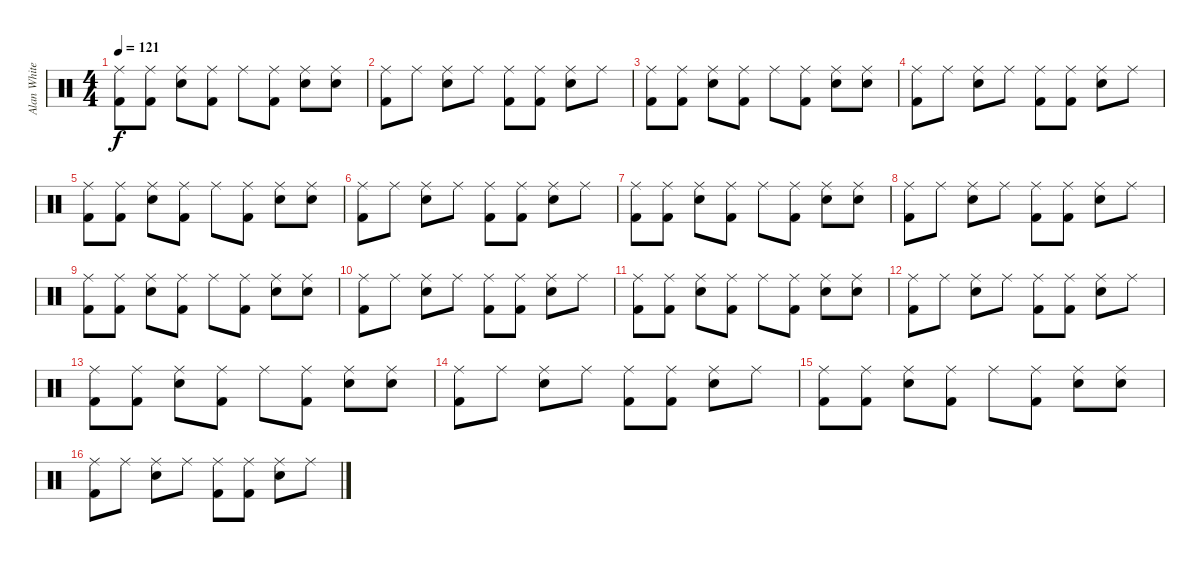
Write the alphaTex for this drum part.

\track ("Alan White - Drums" "Alan White") {instrument percussion}
\staff {score}
\articulation defaults
\ts (4 4)
\tempo 121
\clef neutral
\ks c
("Ride (middle)" "Kick (hit) 2").8{dy f} ("Ride (middle)" "Kick (hit) 2").8 ("Ride (middle)" "Electric Snare (hit)").8 ("Ride (middle)" "Kick (hit) 2").8 "Ride (middle)".8 ("Ride (middle)" "Kick (hit) 2").8 ("Ride (middle)" "Electric Snare (hit)").8 ("Ride (middle)" "Electric Snare (hit)").8 |
("Ride (middle)" "Kick (hit) 2").8 "Ride (middle)".8 ("Ride (middle)" "Electric Snare (hit)").8 "Ride (middle)".8 ("Ride (middle)" "Kick (hit) 2").8 ("Ride (middle)" "Kick (hit) 2").8 ("Ride (middle)" "Electric Snare (hit)").8 "Ride (middle)".8 |
("Ride (middle)" "Kick (hit) 2").8 ("Ride (middle)" "Kick (hit) 2").8 ("Ride (middle)" "Electric Snare (hit)").8 ("Ride (middle)" "Kick (hit) 2").8 "Ride (middle)".8 ("Ride (middle)" "Kick (hit) 2").8 ("Ride (middle)" "Electric Snare (hit)").8 ("Ride (middle)" "Electric Snare (hit)").8 |
("Ride (middle)" "Kick (hit) 2").8 "Ride (middle)".8 ("Ride (middle)" "Electric Snare (hit)").8 "Ride (middle)".8 ("Ride (middle)" "Kick (hit) 2").8 ("Ride (middle)" "Kick (hit) 2").8 ("Ride (middle)" "Electric Snare (hit)").8 "Ride (middle)".8 |
("Ride (middle)" "Kick (hit) 2").8 ("Ride (middle)" "Kick (hit) 2").8 ("Ride (middle)" "Electric Snare (hit)").8 ("Ride (middle)" "Kick (hit) 2").8 "Ride (middle)".8 ("Ride (middle)" "Kick (hit) 2").8 ("Ride (middle)" "Electric Snare (hit)").8 ("Ride (middle)" "Electric Snare (hit)").8 |
("Ride (middle)" "Kick (hit) 2").8 "Ride (middle)".8 ("Ride (middle)" "Electric Snare (hit)").8 "Ride (middle)".8 ("Ride (middle)" "Kick (hit) 2").8 ("Ride (middle)" "Kick (hit) 2").8 ("Ride (middle)" "Electric Snare (hit)").8 "Ride (middle)".8 |
("Ride (middle)" "Kick (hit) 2").8 ("Ride (middle)" "Kick (hit) 2").8 ("Ride (middle)" "Electric Snare (hit)").8 ("Ride (middle)" "Kick (hit) 2").8 "Ride (middle)".8 ("Ride (middle)" "Kick (hit) 2").8 ("Ride (middle)" "Electric Snare (hit)").8 ("Ride (middle)" "Electric Snare (hit)").8 |
("Ride (middle)" "Kick (hit) 2").8 "Ride (middle)".8 ("Ride (middle)" "Electric Snare (hit)").8 "Ride (middle)".8 ("Ride (middle)" "Kick (hit) 2").8 ("Ride (middle)" "Kick (hit) 2").8 ("Ride (middle)" "Electric Snare (hit)").8 "Ride (middle)".8 |
("Ride (middle)" "Kick (hit) 2").8 ("Ride (middle)" "Kick (hit) 2").8 ("Ride (middle)" "Electric Snare (hit)").8 ("Ride (middle)" "Kick (hit) 2").8 "Ride (middle)".8 ("Ride (middle)" "Kick (hit) 2").8 ("Ride (middle)" "Electric Snare (hit)").8 ("Ride (middle)" "Electric Snare (hit)").8 |
("Ride (middle)" "Kick (hit) 2").8 "Ride (middle)".8 ("Ride (middle)" "Electric Snare (hit)").8 "Ride (middle)".8 ("Ride (middle)" "Kick (hit) 2").8 ("Ride (middle)" "Kick (hit) 2").8 ("Ride (middle)" "Electric Snare (hit)").8 "Ride (middle)".8 |
("Ride (middle)" "Kick (hit) 2").8 ("Ride (middle)" "Kick (hit) 2").8 ("Ride (middle)" "Electric Snare (hit)").8 ("Ride (middle)" "Kick (hit) 2").8 "Ride (middle)".8 ("Ride (middle)" "Kick (hit) 2").8 ("Ride (middle)" "Electric Snare (hit)").8 ("Ride (middle)" "Electric Snare (hit)").8 |
("Ride (middle)" "Kick (hit) 2").8 "Ride (middle)".8 ("Ride (middle)" "Electric Snare (hit)").8 "Ride (middle)".8 ("Ride (middle)" "Kick (hit) 2").8 ("Ride (middle)" "Kick (hit) 2").8 ("Ride (middle)" "Electric Snare (hit)").8 "Ride (middle)".8 |
("Ride (middle)" "Kick (hit) 2").8 ("Ride (middle)" "Kick (hit) 2").8 ("Ride (middle)" "Electric Snare (hit)").8 ("Ride (middle)" "Kick (hit) 2").8 "Ride (middle)".8 ("Ride (middle)" "Kick (hit) 2").8 ("Ride (middle)" "Electric Snare (hit)").8 ("Ride (middle)" "Electric Snare (hit)").8 |
("Ride (middle)" "Kick (hit) 2").8 "Ride (middle)".8 ("Ride (middle)" "Electric Snare (hit)").8 "Ride (middle)".8 ("Ride (middle)" "Kick (hit) 2").8 ("Ride (middle)" "Kick (hit) 2").8 ("Ride (middle)" "Electric Snare (hit)").8 "Ride (middle)".8 |
("Ride (middle)" "Kick (hit) 2").8 ("Ride (middle)" "Kick (hit) 2").8 ("Ride (middle)" "Electric Snare (hit)").8 ("Ride (middle)" "Kick (hit) 2").8 "Ride (middle)".8 ("Ride (middle)" "Kick (hit) 2").8 ("Ride (middle)" "Electric Snare (hit)").8 ("Ride (middle)" "Electric Snare (hit)").8 |
("Ride (middle)" "Kick (hit) 2").8 "Ride (middle)".8 ("Ride (middle)" "Electric Snare (hit)").8 "Ride (middle)".8 ("Ride (middle)" "Kick (hit) 2").8 ("Ride (middle)" "Kick (hit) 2").8 ("Ride (middle)" "Electric Snare (hit)").8 "Ride (middle)".8
